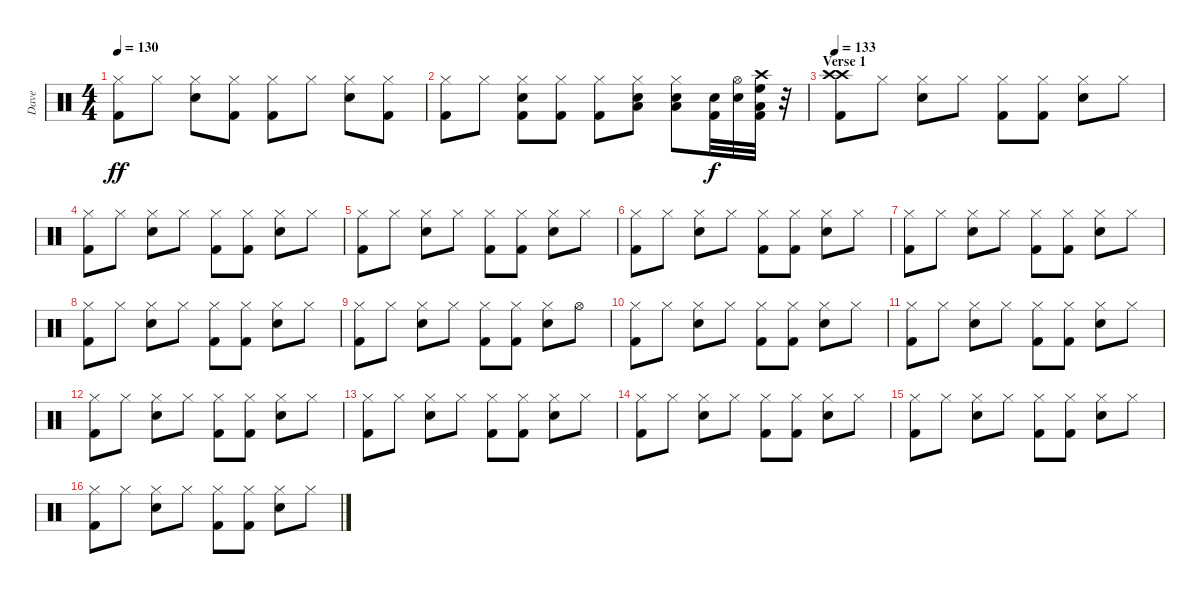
\track ("Dave" "Dave") {instrument percussion}
\staff {score}
\articulation defaults
\ts (4 4)
\tempo 130
\clef neutral
\ks c
("Hi-Hat (closed)" "Kick (hit) 2").8{dy ff} "Hi-Hat (closed)".8 ("Hi-Hat (closed)" "Snare (hit) 2").8 ("Hi-Hat (closed)" "Kick (hit) 2").8 ("Hi-Hat (closed)" "Kick (hit) 2").8 "Hi-Hat (closed)".8 ("Hi-Hat (closed)" "Snare (hit) 2").8 ("Hi-Hat (closed)" "Kick (hit) 2").8 |
("Hi-Hat (closed)" "Kick (hit) 2").8 "Hi-Hat (closed)".8 ("Hi-Hat (closed)" "Snare (hit) 2" "Kick (hit) 2").8 ("Hi-Hat (closed)" "Kick (hit) 2").8 ("Hi-Hat (closed)" "Kick (hit) 2").8 ("Hi-Hat (closed)" "Snare (hit) 2" "Low Tom (hit)").8 ("Hi-Hat (closed)" "Snare (hit) 2" "Low Tom (hit)").8 ("Snare (hit) 2" "Kick (hit) 2").32{dy f} ("Hi-Hat (open)" "Snare (hit) 2").32 ("Crash high (hit)" "Low Tom (hit)" "High Floor Tom (hit)" "Kick (hit) 2").32 r.32 |
\section ("" "Verse 1")
\tempo 133
("Crash high (hit)" "Crash high (hit)" "Kick (hit) 2").8 "Hi-Hat (closed)".8 ("Hi-Hat (closed)" "Snare (hit) 2").8 "Hi-Hat (closed)".8 ("Hi-Hat (closed)" "Kick (hit) 2").8 ("Hi-Hat (closed)" "Kick (hit) 2").8 ("Hi-Hat (closed)" "Snare (hit) 2").8 "Hi-Hat (closed)".8 |
("Hi-Hat (closed)" "Kick (hit) 2").8 "Hi-Hat (closed)".8 ("Hi-Hat (closed)" "Snare (hit) 2").8 "Hi-Hat (closed)".8 ("Hi-Hat (closed)" "Kick (hit) 2").8 ("Hi-Hat (closed)" "Kick (hit) 2").8 ("Hi-Hat (closed)" "Snare (hit) 2").8 "Hi-Hat (closed)".8 |
("Hi-Hat (closed)" "Kick (hit) 2").8 "Hi-Hat (closed)".8 ("Hi-Hat (closed)" "Snare (hit) 2").8 "Hi-Hat (closed)".8 ("Hi-Hat (closed)" "Kick (hit) 2").8 ("Hi-Hat (closed)" "Kick (hit) 2").8 ("Hi-Hat (closed)" "Snare (hit) 2").8 "Hi-Hat (closed)".8 |
("Hi-Hat (closed)" "Kick (hit) 2").8 "Hi-Hat (closed)".8 ("Hi-Hat (closed)" "Snare (hit) 2").8 "Hi-Hat (closed)".8 ("Hi-Hat (closed)" "Kick (hit) 2").8 ("Hi-Hat (closed)" "Kick (hit) 2").8 ("Hi-Hat (closed)" "Snare (hit) 2").8 "Hi-Hat (closed)".8 |
("Hi-Hat (closed)" "Kick (hit) 2").8 "Hi-Hat (closed)".8 ("Hi-Hat (closed)" "Snare (hit) 2").8 "Hi-Hat (closed)".8 ("Hi-Hat (closed)" "Kick (hit) 2").8 ("Hi-Hat (closed)" "Kick (hit) 2").8 ("Hi-Hat (closed)" "Snare (hit) 2").8 "Hi-Hat (closed)".8 |
("Hi-Hat (closed)" "Kick (hit) 2").8 "Hi-Hat (closed)".8 ("Hi-Hat (closed)" "Snare (hit) 2").8 "Hi-Hat (closed)".8 ("Hi-Hat (closed)" "Kick (hit) 2").8 ("Hi-Hat (closed)" "Kick (hit) 2").8 ("Hi-Hat (closed)" "Snare (hit) 2").8 "Hi-Hat (closed)".8 |
("Hi-Hat (closed)" "Kick (hit) 2").8 "Hi-Hat (closed)".8 ("Hi-Hat (closed)" "Snare (hit) 2").8 "Hi-Hat (closed)".8 ("Hi-Hat (closed)" "Kick (hit) 2").8 ("Hi-Hat (closed)" "Kick (hit) 2").8 ("Hi-Hat (closed)" "Snare (hit) 2").8 "Hi-Hat (open)".8 |
("Hi-Hat (closed)" "Kick (hit) 2").8 "Hi-Hat (closed)".8 ("Hi-Hat (closed)" "Snare (hit) 2").8 "Hi-Hat (closed)".8 ("Hi-Hat (closed)" "Kick (hit) 2").8 ("Hi-Hat (closed)" "Kick (hit) 2").8 ("Hi-Hat (closed)" "Snare (hit) 2").8 "Hi-Hat (closed)".8 |
("Hi-Hat (closed)" "Kick (hit) 2").8 "Hi-Hat (closed)".8 ("Hi-Hat (closed)" "Snare (hit) 2").8 "Hi-Hat (closed)".8 ("Hi-Hat (closed)" "Kick (hit) 2").8 ("Hi-Hat (closed)" "Kick (hit) 2").8 ("Hi-Hat (closed)" "Snare (hit) 2").8 "Hi-Hat (closed)".8 |
("Hi-Hat (closed)" "Kick (hit) 2").8 "Hi-Hat (closed)".8 ("Hi-Hat (closed)" "Snare (hit) 2").8 "Hi-Hat (closed)".8 ("Hi-Hat (closed)" "Kick (hit) 2").8 ("Hi-Hat (closed)" "Kick (hit) 2").8 ("Hi-Hat (closed)" "Snare (hit) 2").8 "Hi-Hat (closed)".8 |
("Hi-Hat (closed)" "Kick (hit) 2").8 "Hi-Hat (closed)".8 ("Hi-Hat (closed)" "Snare (hit) 2").8 "Hi-Hat (closed)".8 ("Hi-Hat (closed)" "Kick (hit) 2").8 ("Hi-Hat (closed)" "Kick (hit) 2").8 ("Hi-Hat (closed)" "Snare (hit) 2").8 "Hi-Hat (closed)".8 |
("Hi-Hat (closed)" "Kick (hit) 2").8 "Hi-Hat (closed)".8 ("Hi-Hat (closed)" "Snare (hit) 2").8 "Hi-Hat (closed)".8 ("Hi-Hat (closed)" "Kick (hit) 2").8 ("Hi-Hat (closed)" "Kick (hit) 2").8 ("Hi-Hat (closed)" "Snare (hit) 2").8 "Hi-Hat (closed)".8 |
("Hi-Hat (closed)" "Kick (hit) 2").8 "Hi-Hat (closed)".8 ("Hi-Hat (closed)" "Snare (hit) 2").8 "Hi-Hat (closed)".8 ("Hi-Hat (closed)" "Kick (hit) 2").8 ("Hi-Hat (closed)" "Kick (hit) 2").8 ("Hi-Hat (closed)" "Snare (hit) 2").8 "Hi-Hat (closed)".8 |
("Hi-Hat (closed)" "Kick (hit) 2").8 "Hi-Hat (closed)".8 ("Hi-Hat (closed)" "Snare (hit) 2").8 "Hi-Hat (closed)".8 ("Hi-Hat (closed)" "Kick (hit) 2").8 ("Hi-Hat (closed)" "Kick (hit) 2").8 ("Hi-Hat (closed)" "Snare (hit) 2").8 "Hi-Hat (closed)".8
